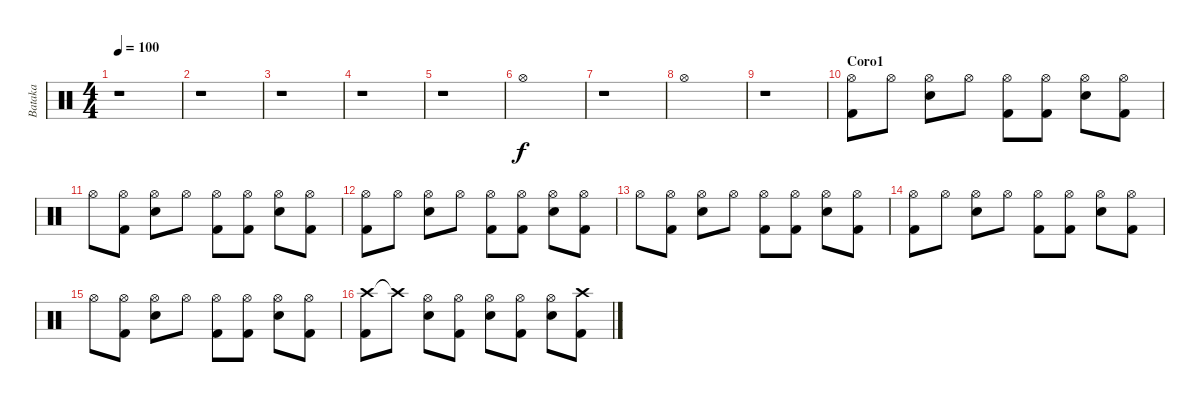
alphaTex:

\track ("Bataka" "Bataka") {instrument percussion}
\staff {score}
\articulation defaults
\ts (4 4)
\tempo 100
\clef neutral
\ks c
r.1{dy f} |
r.1 |
r.1 |
r.1 |
r.1 |
"Hi-Hat (open)".1 |
r.1 |
"Hi-Hat (open)".1 |
r.1 |
\section ("" "Coro1")
("Hi-Hat (open)" "Kick (hit) 2").8 "Hi-Hat (open)".8 ("Hi-Hat (open)" "Snare (hit) 2").8 "Hi-Hat (open)".8 ("Hi-Hat (open)" "Kick (hit) 2").8 ("Hi-Hat (open)" "Kick (hit) 2").8 ("Hi-Hat (open)" "Snare (hit) 2").8 ("Hi-Hat (open)" "Kick (hit) 2").8 |
"Hi-Hat (open)".8 ("Hi-Hat (open)" "Kick (hit) 2").8 ("Hi-Hat (open)" "Snare (hit) 2").8 "Hi-Hat (open)".8 ("Hi-Hat (open)" "Kick (hit) 2").8 ("Hi-Hat (open)" "Kick (hit) 2").8 ("Hi-Hat (open)" "Snare (hit) 2").8 ("Hi-Hat (open)" "Kick (hit) 2").8 |
("Hi-Hat (open)" "Kick (hit) 2").8 "Hi-Hat (open)".8 ("Hi-Hat (open)" "Snare (hit) 2").8 "Hi-Hat (open)".8 ("Hi-Hat (open)" "Kick (hit) 2").8 ("Hi-Hat (open)" "Kick (hit) 2").8 ("Hi-Hat (open)" "Snare (hit) 2").8 ("Hi-Hat (open)" "Kick (hit) 2").8 |
"Hi-Hat (open)".8 ("Hi-Hat (open)" "Kick (hit) 2").8 ("Hi-Hat (open)" "Snare (hit) 2").8 "Hi-Hat (open)".8 ("Hi-Hat (open)" "Kick (hit) 2").8 ("Hi-Hat (open)" "Kick (hit) 2").8 ("Hi-Hat (open)" "Snare (hit) 2").8 ("Hi-Hat (open)" "Kick (hit) 2").8 |
("Hi-Hat (open)" "Kick (hit) 2").8 "Hi-Hat (open)".8 ("Hi-Hat (open)" "Snare (hit) 2").8 "Hi-Hat (open)".8 ("Hi-Hat (open)" "Kick (hit) 2").8 ("Hi-Hat (open)" "Kick (hit) 2").8 ("Hi-Hat (open)" "Snare (hit) 2").8 ("Hi-Hat (open)" "Kick (hit) 2").8 |
"Hi-Hat (open)".8 ("Hi-Hat (open)" "Kick (hit) 2").8 ("Hi-Hat (open)" "Snare (hit) 2").8 "Hi-Hat (open)".8 ("Hi-Hat (open)" "Kick (hit) 2").8 ("Hi-Hat (open)" "Kick (hit) 2").8 ("Hi-Hat (open)" "Snare (hit) 2").8 ("Hi-Hat (open)" "Kick (hit) 2").8 |
("Crash high (hit)" "Kick (hit) 2").8 "Crash high (hit)"{t}.8 ("Hi-Hat (open)" "Snare (hit) 2").8 ("Hi-Hat (open)" "Kick (hit) 2").8 ("Hi-Hat (open)" "Snare (hit) 2").8 ("Hi-Hat (open)" "Kick (hit) 2").8 ("Hi-Hat (open)" "Snare (hit) 2").8 ("Crash high (hit)" "Kick (hit) 2").8
